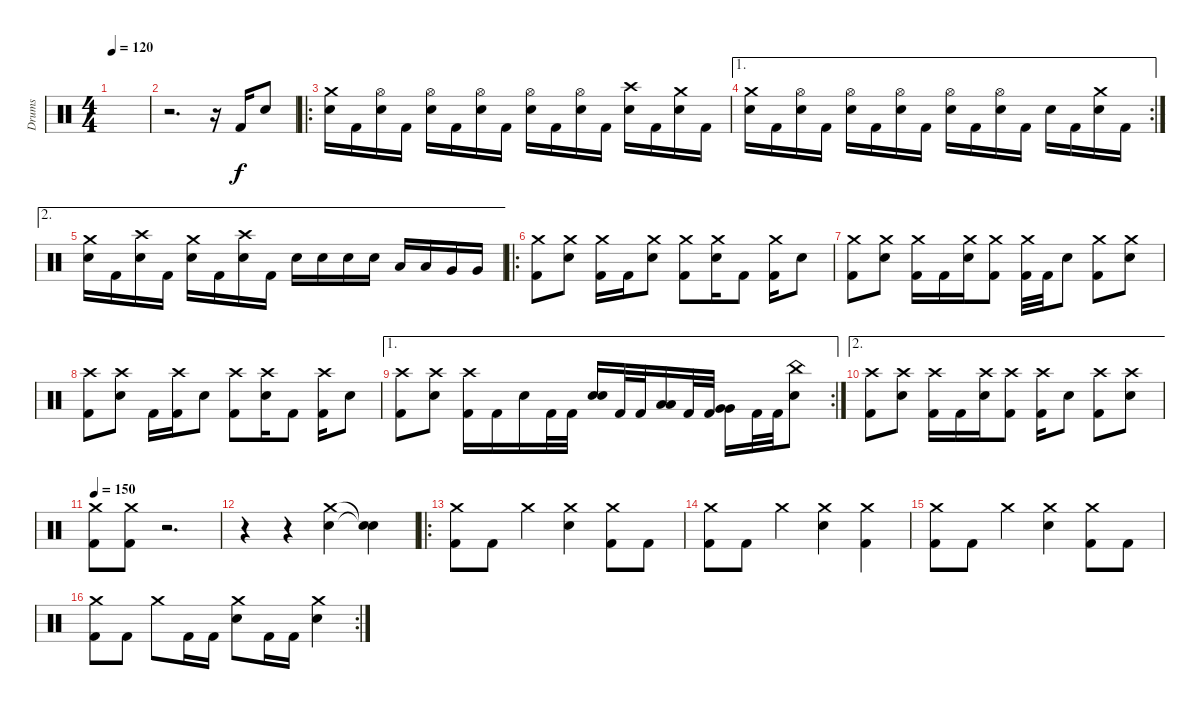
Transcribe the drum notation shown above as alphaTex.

\track ("Drums" "Drums") {instrument percussion}
\staff {score}
\articulation defaults
\ts (4 4)
\tempo 120
\clef neutral
\ks c
|
r.2{d} r.16 "Kick (hit) 2".16 "Electric Snare (hit)".8 |
\ro
("Crash medium (hit)" "Electric Snare (hit)").16 "Kick (hit) 2".16 ("Hi-Hat (open)" "Electric Snare (hit)").16 "Kick (hit) 2".16 ("Hi-Hat (open)" "Electric Snare (hit)").16 "Kick (hit) 2".16 ("Hi-Hat (open)" "Electric Snare (hit)").16 "Kick (hit) 2".16 ("Hi-Hat (open)" "Electric Snare (hit)").16 "Kick (hit) 2".16 ("Hi-Hat (open)" "Electric Snare (hit)").16 "Kick (hit) 2".16 ("Crash high (hit)" "Electric Snare (hit)").16 "Kick (hit) 2".16 ("Crash medium (hit)" "Electric Snare (hit)").16 "Kick (hit) 2".16 |
\ae 1
\rc 2
("Crash medium (hit)" "Electric Snare (hit)").16 "Kick (hit) 2".16 ("Hi-Hat (open)" "Electric Snare (hit)").16 "Kick (hit) 2".16 ("Hi-Hat (open)" "Electric Snare (hit)").16 "Kick (hit) 2".16 ("Hi-Hat (open)" "Electric Snare (hit)").16 "Kick (hit) 2".16 ("Hi-Hat (open)" "Electric Snare (hit)").16 "Kick (hit) 2".16 ("Hi-Hat (open)" "Electric Snare (hit)").16 "Kick (hit) 2".16 "Electric Snare (hit)".16 "Kick (hit) 2".16 ("Crash medium (hit)" "Electric Snare (hit)").16 "Kick (hit) 2".16 |
\ae 2
("Crash medium (hit)" "Electric Snare (hit)").16 "Kick (hit) 2".16 ("Crash high (hit)" "Electric Snare (hit)").16 "Kick (hit) 2".16 ("Crash medium (hit)" "Electric Snare (hit)").16 "Kick (hit) 2".16 ("Crash high (hit)" "Electric Snare (hit)").16 "Kick (hit) 2".16 "Electric Snare (hit)".16 "Electric Snare (hit)".16 "Electric Snare (hit)".16 "Electric Snare (hit)".16 "Low Tom (hit)".16 "Low Tom (hit)".16 "Very Low Tom (hit)".16 "Very Low Tom (hit)".16 |
\ro
("Crash medium (hit)" "Kick (hit) 2").8 ("Crash medium (hit)" "Electric Snare (hit)").8 ("Crash medium (hit)" "Kick (hit) 2").16 "Kick (hit) 2".16 ("Crash medium (hit)" "Electric Snare (hit)").8 ("Crash medium (hit)" "Kick (hit) 2").8 ("Crash medium (hit)" "Electric Snare (hit)").16 "Kick (hit) 2".8 ("Crash medium (hit)" "Kick (hit) 2").16 "Electric Snare (hit)".8 |
("Crash medium (hit)" "Kick (hit) 2").8 ("Crash medium (hit)" "Electric Snare (hit)").8 ("Crash medium (hit)" "Kick (hit) 2").16 "Kick (hit) 2".16 ("Crash medium (hit)" "Electric Snare (hit)").16 ("Crash medium (hit)" "Kick (hit) 2").8 ("Crash medium (hit)" "Kick (hit) 2").32 "Kick (hit) 2".32 "Electric Snare (hit)".8 ("Crash medium (hit)" "Kick (hit) 2").8 ("Crash medium (hit)" "Electric Snare (hit)").8 |
("Crash high (hit)" "Kick (hit) 2").8 ("Crash high (hit)" "Electric Snare (hit)").8 "Kick (hit) 2".16 ("Crash high (hit)" "Kick (hit) 2").16 "Electric Snare (hit)".8 ("Crash high (hit)" "Kick (hit) 2").8 ("Crash high (hit)" "Electric Snare (hit)").16 "Kick (hit) 2".8 ("Crash high (hit)" "Kick (hit) 2").16 "Electric Snare (hit)".8 |
\ae 1
\rc 2
("Crash high (hit)" "Kick (hit) 2").8 ("Crash high (hit)" "Electric Snare (hit)").8 ("Crash high (hit)" "Kick (hit) 2").16 "Kick (hit) 2".16 "Electric Snare (hit)".16 "Kick (hit) 2".32 "Kick (hit) 2".32 ("Electric Snare (hit)" "Electric Snare (hit)").16 "Kick (hit) 2".32 "Kick (hit) 2".32 ("Low Tom (hit)" "Low Tom (hit)").16 "Kick (hit) 2".32 "Kick (hit) 2".32 ("Very Low Tom (hit)" "Very Low Tom (hit)").16 "Kick (hit) 2".32 "Kick (hit) 2".32 ("China (hit)" "Electric Snare (hit)").8 |
\ae 2
("Crash high (hit)" "Kick (hit) 2").8 ("Crash high (hit)" "Electric Snare (hit)").8 ("Crash high (hit)" "Kick (hit) 2").16 "Kick (hit) 2".16 ("Crash high (hit)" "Electric Snare (hit)").16 ("Crash high (hit)" "Kick (hit) 2").8 ("Crash high (hit)" "Kick (hit) 2").16 "Electric Snare (hit)".8 ("Crash high (hit)" "Kick (hit) 2").8 ("Crash high (hit)" "Electric Snare (hit)").8 |
\tempo 150
("Crash medium (hit)" "Kick (hit) 2").8 ("Crash medium (hit)" "Kick (hit) 2").8 r.2{d} |
r.4 r.4 ("Crash medium (hit)" "Electric Snare (hit)").4 ("Snare (hit)"{t} "Snare (hit)"{t}).4 |
\ro
("Crash medium (hit)" "Kick (hit) 2").8 "Kick (hit) 2".8 "Crash medium (hit)".4 ("Crash medium (hit)" "Electric Snare (hit)").4 ("Crash medium (hit)" "Kick (hit) 2").8 "Kick (hit) 2".8 |
("Crash medium (hit)" "Kick (hit) 2").8 "Kick (hit) 2".8 "Crash medium (hit)".4 ("Crash medium (hit)" "Electric Snare (hit)").4 ("Crash medium (hit)" "Kick (hit) 2").4 |
("Crash medium (hit)" "Kick (hit) 2").8 "Kick (hit) 2".8 "Crash medium (hit)".4 ("Crash medium (hit)" "Electric Snare (hit)").4 ("Crash medium (hit)" "Kick (hit) 2").8 "Kick (hit) 2".8 |
\rc 2
("Crash medium (hit)" "Kick (hit) 2").8 "Kick (hit) 2".8 "Crash medium (hit)".8 "Kick (hit) 2".16 "Kick (hit) 2".16 ("Crash medium (hit)" "Electric Snare (hit)").8 "Kick (hit) 2".16 "Kick (hit) 2".16 ("Crash medium (hit)" "Electric Snare (hit)").4
